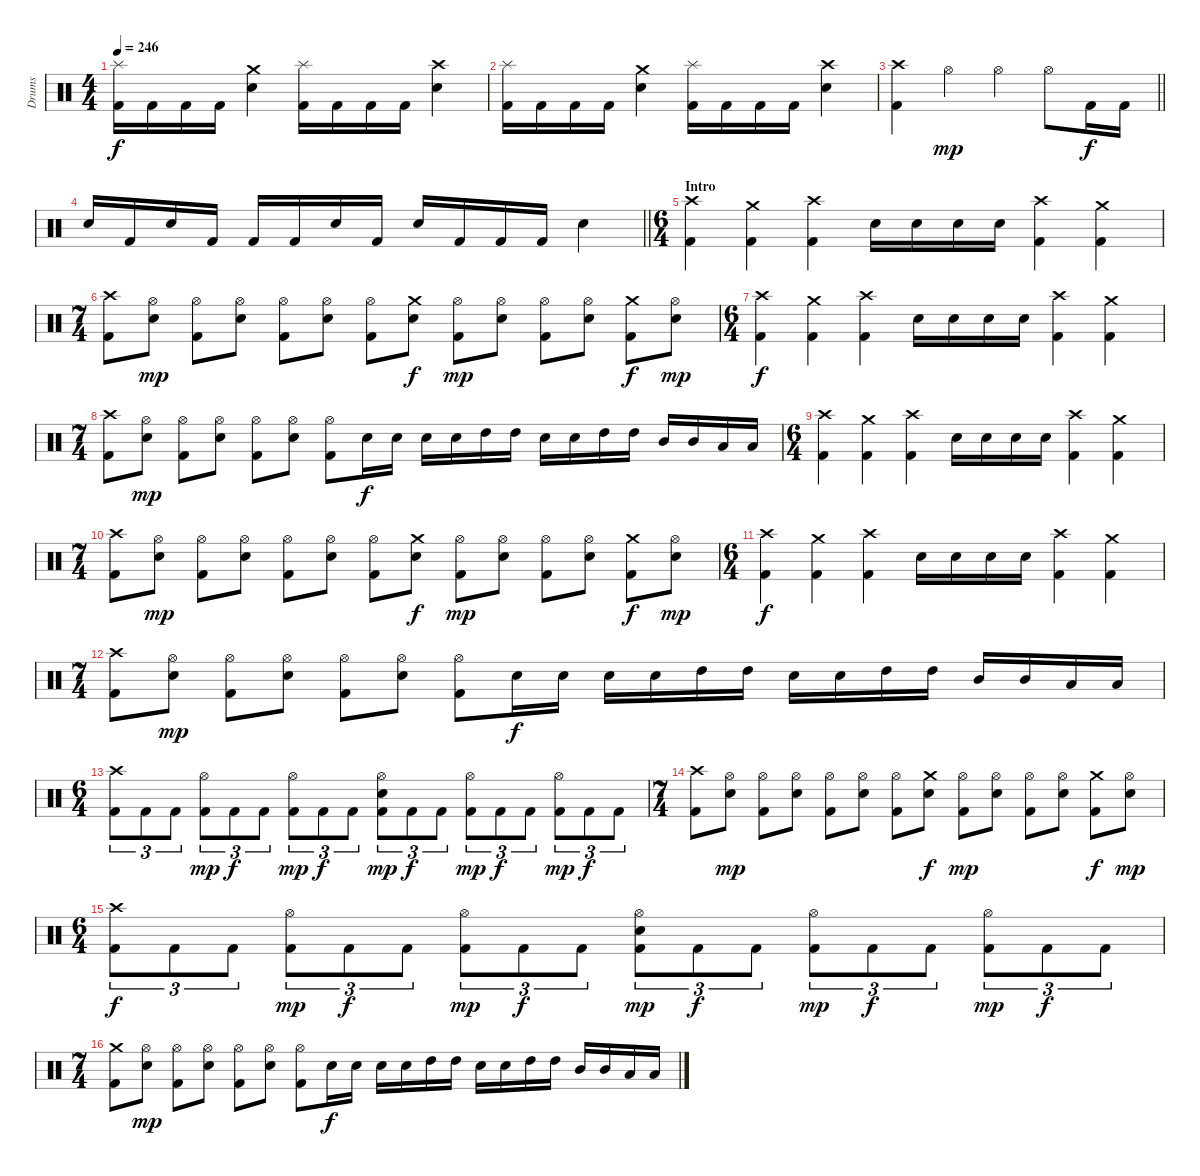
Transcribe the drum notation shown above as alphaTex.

\track ("Drums" "Drums") {instrument percussion}
\staff {score}
\articulation defaults
\ts (4 4)
\section ("" "")
\tempo 246
\clef neutral
\ks c
("Splash (hit)" "Kick (hit) 2").16{dy f} "Kick (hit) 2".16 "Kick (hit) 2".16 "Kick (hit) 2".16 ("Crash medium (hit)" "Snare (hit) 2").4 ("Splash (hit)" "Kick (hit) 2").16 "Kick (hit) 2".16 "Kick (hit) 2".16 "Kick (hit) 2".16 ("Crash high (hit)" "Snare (hit) 2").4 |
("Splash (hit)" "Kick (hit) 2").16 "Kick (hit) 2".16 "Kick (hit) 2".16 "Kick (hit) 2".16 ("Crash medium (hit)" "Snare (hit) 2").4 ("Splash (hit)" "Kick (hit) 2").16 "Kick (hit) 2".16 "Kick (hit) 2".16 "Kick (hit) 2".16 ("Crash high (hit)" "Snare (hit) 2").4 |
\barLineRight lightlight
("Crash high (hit)" "Kick (hit) 2").4 "Hi-Hat (open)".4{dy mp} "Hi-Hat (open)".4 "Hi-Hat (open)".8 "Kick (hit) 2".16{dy f} "Kick (hit) 2".16 |
\barLineRight lightlight "Snare (hit) 2".16 "Kick (hit) 2".16 "Snare (hit) 2".16 "Kick (hit) 2".16 "Kick (hit) 2".16 "Kick (hit) 2".16 "Snare (hit) 2".16 "Kick (hit) 2".16 "Snare (hit) 2".16 "Kick (hit) 2".16 "Kick (hit) 2".16 "Kick (hit) 2".16 "Snare (hit) 2".4
|
\ts (6 4)
\section ("" "Intro")
("Crash high (hit)" "Kick (hit) 2").4 ("Crash medium (hit)" "Kick (hit) 2").4 ("Crash high (hit)" "Kick (hit) 2").4 "Snare (hit) 2".16 "Snare (hit) 2".16 "Snare (hit) 2".16 "Snare (hit) 2".16 ("Crash high (hit)" "Kick (hit) 2").4 ("Crash medium (hit)" "Kick (hit) 2").4 |
\ts (7 4)
("Crash high (hit)" "Kick (hit) 2").8 ("Hi-Hat (open)" "Snare (hit) 2").8{dy mp} ("Hi-Hat (open)" "Kick (hit) 2").8 ("Hi-Hat (open)" "Snare (hit) 2").8 ("Hi-Hat (open)" "Kick (hit) 2").8 ("Hi-Hat (open)" "Snare (hit) 2").8 ("Hi-Hat (open)" "Kick (hit) 2").8 ("Crash medium (hit)" "Snare (hit) 2").8{dy f} ("Hi-Hat (open)" "Kick (hit) 2").8{dy mp} ("Hi-Hat (open)" "Snare (hit) 2").8 ("Hi-Hat (open)" "Kick (hit) 2").8 ("Hi-Hat (open)" "Snare (hit) 2").8 ("Crash medium (hit)" "Kick (hit) 2").8{dy f} ("Hi-Hat (open)" "Snare (hit) 2").8{dy mp} |
\ts (6 4)
("Crash high (hit)" "Kick (hit) 2").4{dy f} ("Crash medium (hit)" "Kick (hit) 2").4 ("Crash high (hit)" "Kick (hit) 2").4 "Snare (hit) 2".16 "Snare (hit) 2".16 "Snare (hit) 2".16 "Snare (hit) 2".16 ("Crash high (hit)" "Kick (hit) 2").4 ("Crash medium (hit)" "Kick (hit) 2").4 |
\ts (7 4)
("Crash high (hit)" "Kick (hit) 2").8 ("Hi-Hat (open)" "Snare (hit) 2").8{dy mp} ("Hi-Hat (open)" "Kick (hit) 2").8 ("Hi-Hat (open)" "Snare (hit) 2").8 ("Hi-Hat (open)" "Kick (hit) 2").8 ("Hi-Hat (open)" "Snare (hit) 2").8 ("Hi-Hat (open)" "Kick (hit) 2").8 "Snare (hit) 2".16{dy f} "Snare (hit) 2".16 "Snare (hit) 2".16 "Snare (hit) 2".16 "High Tom (hit)".16 "High Tom (hit)".16 "Snare (hit) 2".16 "Snare (hit) 2".16 "High Tom (hit)".16 "High Tom (hit)".16 "Mid Tom (hit)".16 "Mid Tom (hit)".16 "Low Tom (hit)".16 "Low Tom (hit)".16 |
\ts (6 4)
("Crash high (hit)" "Kick (hit) 2").4 ("Crash medium (hit)" "Kick (hit) 2").4 ("Crash high (hit)" "Kick (hit) 2").4 "Snare (hit) 2".16 "Snare (hit) 2".16 "Snare (hit) 2".16 "Snare (hit) 2".16 ("Crash high (hit)" "Kick (hit) 2").4 ("Crash medium (hit)" "Kick (hit) 2").4 |
\ts (7 4)
("Crash high (hit)" "Kick (hit) 2").8 ("Hi-Hat (open)" "Snare (hit) 2").8{dy mp} ("Hi-Hat (open)" "Kick (hit) 2").8 ("Hi-Hat (open)" "Snare (hit) 2").8 ("Hi-Hat (open)" "Kick (hit) 2").8 ("Hi-Hat (open)" "Snare (hit) 2").8 ("Hi-Hat (open)" "Kick (hit) 2").8 ("Crash medium (hit)" "Snare (hit) 2").8{dy f} ("Hi-Hat (open)" "Kick (hit) 2").8{dy mp} ("Hi-Hat (open)" "Snare (hit) 2").8 ("Hi-Hat (open)" "Kick (hit) 2").8 ("Hi-Hat (open)" "Snare (hit) 2").8 ("Crash medium (hit)" "Kick (hit) 2").8{dy f} ("Hi-Hat (open)" "Snare (hit) 2").8{dy mp} |
\ts (6 4)
("Crash high (hit)" "Kick (hit) 2").4{dy f} ("Crash medium (hit)" "Kick (hit) 2").4 ("Crash high (hit)" "Kick (hit) 2").4 "Snare (hit) 2".16 "Snare (hit) 2".16 "Snare (hit) 2".16 "Snare (hit) 2".16 ("Crash high (hit)" "Kick (hit) 2").4 ("Crash medium (hit)" "Kick (hit) 2").4 |
\ts (7 4)
("Crash high (hit)" "Kick (hit) 2").8 ("Hi-Hat (open)" "Snare (hit) 2").8{dy mp} ("Hi-Hat (open)" "Kick (hit) 2").8 ("Hi-Hat (open)" "Snare (hit) 2").8 ("Hi-Hat (open)" "Kick (hit) 2").8 ("Hi-Hat (open)" "Snare (hit) 2").8 ("Hi-Hat (open)" "Kick (hit) 2").8 "Snare (hit) 2".16{dy f} "Snare (hit) 2".16 "Snare (hit) 2".16 "Snare (hit) 2".16 "High Tom (hit)".16 "High Tom (hit)".16 "Snare (hit) 2".16 "Snare (hit) 2".16 "High Tom (hit)".16 "High Tom (hit)".16 "Mid Tom (hit)".16 "Mid Tom (hit)".16 "Low Tom (hit)".16 "Low Tom (hit)".16 |
\ts (6 4)
("Crash high (hit)" "Kick (hit) 2").8{tu (3 2)} "Kick (hit) 2".8{tu (3 2)} "Kick (hit) 2".8{tu (3 2)} ("Hi-Hat (open)" "Kick (hit) 2").8{tu (3 2) dy mp} "Kick (hit) 2".8{tu (3 2) dy f} "Kick (hit) 2".8{tu (3 2)} ("Hi-Hat (open)" "Kick (hit) 2").8{tu (3 2) dy mp} "Kick (hit) 2".8{tu (3 2) dy f} "Kick (hit) 2".8{tu (3 2)} ("Hi-Hat (open)" "Snare (hit) 2" "Kick (hit) 2").8{tu (3 2) dy mp} "Kick (hit) 2".8{tu (3 2) dy f} "Kick (hit) 2".8{tu (3 2)} ("Hi-Hat (open)" "Kick (hit) 2").8{tu (3 2) dy mp} "Kick (hit) 2".8{tu (3 2) dy f} "Kick (hit) 2".8{tu (3 2)} ("Hi-Hat (open)" "Kick (hit) 2").8{tu (3 2) dy mp} "Kick (hit) 2".8{tu (3 2) dy f} "Kick (hit) 2".8{tu (3 2)} |
\ts (7 4)
("Crash high (hit)" "Kick (hit) 2").8 ("Hi-Hat (open)" "Snare (hit) 2").8{dy mp} ("Hi-Hat (open)" "Kick (hit) 2").8 ("Hi-Hat (open)" "Snare (hit) 2").8 ("Hi-Hat (open)" "Kick (hit) 2").8 ("Hi-Hat (open)" "Snare (hit) 2").8 ("Hi-Hat (open)" "Kick (hit) 2").8 ("Crash medium (hit)" "Snare (hit) 2").8{dy f} ("Hi-Hat (open)" "Kick (hit) 2").8{dy mp} ("Hi-Hat (open)" "Snare (hit) 2").8 ("Hi-Hat (open)" "Kick (hit) 2").8 ("Hi-Hat (open)" "Snare (hit) 2").8 ("Crash medium (hit)" "Kick (hit) 2").8{dy f} ("Hi-Hat (open)" "Snare (hit) 2").8{dy mp} |
\ts (6 4)
("Crash high (hit)" "Kick (hit) 2").8{tu (3 2) dy f} "Kick (hit) 2".8{tu (3 2)} "Kick (hit) 2".8{tu (3 2)} ("Hi-Hat (open)" "Kick (hit) 2").8{tu (3 2) dy mp} "Kick (hit) 2".8{tu (3 2) dy f} "Kick (hit) 2".8{tu (3 2)} ("Hi-Hat (open)" "Kick (hit) 2").8{tu (3 2) dy mp} "Kick (hit) 2".8{tu (3 2) dy f} "Kick (hit) 2".8{tu (3 2)} ("Hi-Hat (open)" "Snare (hit) 2" "Kick (hit) 2").8{tu (3 2) dy mp} "Kick (hit) 2".8{tu (3 2) dy f} "Kick (hit) 2".8{tu (3 2)} ("Hi-Hat (open)" "Kick (hit) 2").8{tu (3 2) dy mp} "Kick (hit) 2".8{tu (3 2) dy f} "Kick (hit) 2".8{tu (3 2)} ("Hi-Hat (open)" "Kick (hit) 2").8{tu (3 2) dy mp} "Kick (hit) 2".8{tu (3 2) dy f} "Kick (hit) 2".8{tu (3 2)} |
\ts (7 4)
("Crash medium (hit)" "Kick (hit) 2").8 ("Hi-Hat (open)" "Snare (hit) 2").8{dy mp} ("Hi-Hat (open)" "Kick (hit) 2").8 ("Hi-Hat (open)" "Snare (hit) 2").8 ("Hi-Hat (open)" "Kick (hit) 2").8 ("Hi-Hat (open)" "Snare (hit) 2").8 ("Hi-Hat (open)" "Kick (hit) 2").8 "Snare (hit) 2".16{dy f} "Snare (hit) 2".16 "Snare (hit) 2".16 "Snare (hit) 2".16 "High Tom (hit)".16 "High Tom (hit)".16 "Snare (hit) 2".16 "Snare (hit) 2".16 "High Tom (hit)".16 "High Tom (hit)".16 "Mid Tom (hit)".16 "Mid Tom (hit)".16 "Low Tom (hit)".16 "Low Tom (hit)".16
